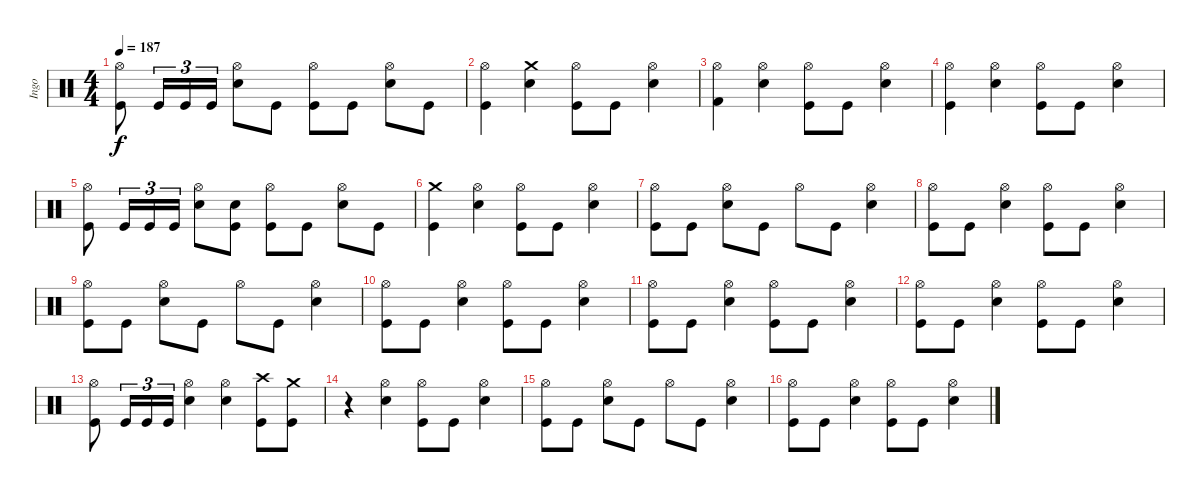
\track ("Ingo" "Ingo") {instrument percussion}
\staff {score}
\articulation defaults
\ts (4 4)
\tempo 187
\clef neutral
\ks c
("Hi-Hat (open)" "Kick (hit)").8{dy f} "Kick (hit)".16{tu (3 2)} "Kick (hit)".16{tu (3 2)} "Kick (hit)".16{tu (3 2)} ("Hi-Hat (open)" "Snare (hit) 2").8 "Kick (hit)".8 ("Hi-Hat (open)" "Kick (hit)").8 "Kick (hit)".8 ("Hi-Hat (open)" "Snare (hit) 2").8 "Kick (hit)".8 |
("Hi-Hat (open)" "Kick (hit)").4 ("Crash medium (hit)" "Snare (hit) 2").4 ("Hi-Hat (open)" "Kick (hit)").8 "Kick (hit)".8 ("Hi-Hat (open)" "Snare (hit) 2").4 |
("Hi-Hat (open)" "Kick (hit) 2").4 ("Hi-Hat (open)" "Snare (hit) 2").4 ("Hi-Hat (open)" "Kick (hit)").8 "Kick (hit)".8 ("Hi-Hat (open)" "Snare (hit) 2").4 |
("Hi-Hat (open)" "Kick (hit)").4 ("Hi-Hat (open)" "Snare (hit) 2").4 ("Hi-Hat (open)" "Kick (hit)").8 "Kick (hit)".8 ("Hi-Hat (open)" "Snare (hit) 2").4 |
("Hi-Hat (open)" "Kick (hit)").8 "Kick (hit)".16{tu (3 2)} "Kick (hit)".16{tu (3 2)} "Kick (hit)".16{tu (3 2)} ("Hi-Hat (open)" "Snare (hit) 2").8 ("Snare (hit) 2" "Kick (hit)").8 ("Hi-Hat (open)" "Kick (hit)").8 "Kick (hit)".8 ("Hi-Hat (open)" "Snare (hit) 2").8 "Kick (hit)".8 |
("Crash medium (hit)" "Kick (hit)").4 ("Hi-Hat (open)" "Snare (hit) 2").4 ("Hi-Hat (open)" "Kick (hit)").8 "Kick (hit)".8 ("Hi-Hat (open)" "Snare (hit) 2").4 |
("Hi-Hat (open)" "Kick (hit)").8 "Kick (hit)".8 ("Hi-Hat (open)" "Snare (hit) 2").8 "Kick (hit)".8 "Hi-Hat (open)".8 "Kick (hit)".8 ("Hi-Hat (open)" "Snare (hit) 2").4 |
("Hi-Hat (open)" "Kick (hit)").8 "Kick (hit)".8 ("Hi-Hat (open)" "Snare (hit) 2").4 ("Hi-Hat (open)" "Kick (hit)").8 "Kick (hit)".8 ("Hi-Hat (open)" "Snare (hit) 2").4 |
("Hi-Hat (open)" "Kick (hit)").8 "Kick (hit)".8 ("Hi-Hat (open)" "Snare (hit) 2").8 "Kick (hit)".8 "Hi-Hat (open)".8 "Kick (hit)".8 ("Hi-Hat (open)" "Snare (hit) 2").4 |
("Hi-Hat (open)" "Kick (hit)").8 "Kick (hit)".8 ("Hi-Hat (open)" "Snare (hit) 2").4 ("Hi-Hat (open)" "Kick (hit)").8 "Kick (hit)".8 ("Hi-Hat (open)" "Snare (hit) 2").4 |
("Hi-Hat (open)" "Kick (hit)").8 "Kick (hit)".8 ("Hi-Hat (open)" "Snare (hit) 2").4 ("Hi-Hat (open)" "Kick (hit)").8 "Kick (hit)".8 ("Hi-Hat (open)" "Snare (hit) 2").4 |
("Hi-Hat (open)" "Kick (hit)").8 "Kick (hit)".8 ("Hi-Hat (open)" "Snare (hit) 2").4 ("Hi-Hat (open)" "Kick (hit)").8 "Kick (hit)".8 ("Hi-Hat (open)" "Snare (hit) 2").4 |
("Hi-Hat (open)" "Kick (hit)").8 "Kick (hit)".16{tu (3 2)} "Kick (hit)".16{tu (3 2)} "Kick (hit)".16{tu (3 2)} ("Hi-Hat (open)" "Snare (hit) 2").4 ("Hi-Hat (open)" "Snare (hit) 2").4 ("Crash high (hit)" "Kick (hit)").8 ("Crash medium (hit)" "Kick (hit)").8 |
r.4 ("Hi-Hat (open)" "Snare (hit) 2").4 ("Hi-Hat (open)" "Kick (hit)").8 "Kick (hit)".8 ("Hi-Hat (open)" "Snare (hit) 2").4 |
("Hi-Hat (open)" "Kick (hit)").8 "Kick (hit)".8 ("Hi-Hat (open)" "Snare (hit) 2").8 "Kick (hit)".8 "Hi-Hat (open)".8 "Kick (hit)".8 ("Hi-Hat (open)" "Snare (hit) 2").4 |
("Hi-Hat (open)" "Kick (hit)").8 "Kick (hit)".8 ("Hi-Hat (open)" "Snare (hit) 2").4 ("Hi-Hat (open)" "Kick (hit)").8 "Kick (hit)".8 ("Hi-Hat (open)" "Snare (hit) 2").4
